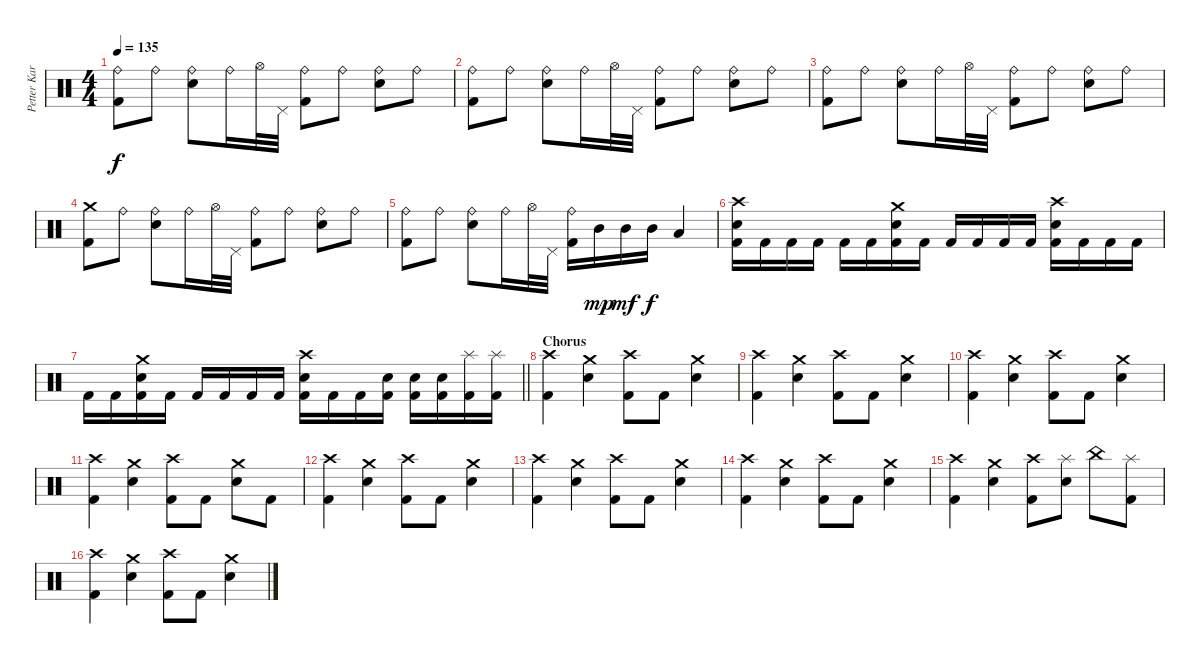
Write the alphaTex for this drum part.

\track ("Petter Karlsson" "Petter Kar") {instrument percussion}
\staff {score}
\articulation defaults
\ts (4 4)
\tempo 135
\clef neutral
\ks c
("Ride (bell)" "Kick (hit) 2").8{dy f} "Ride (bell)".8 ("Ride (bell)" "Electric Snare (hit)").8 "Ride (bell)".16 "Hi-Hat (open)".32 "Pedal Hi-Hat (hit)".32 ("Ride (bell)" "Kick (hit) 2").8 "Ride (bell)".8 ("Ride (bell)" "Electric Snare (hit)").8 "Ride (bell)".8 |
("Ride (bell)" "Kick (hit) 2").8 "Ride (bell)".8 ("Ride (bell)" "Electric Snare (hit)").8 "Ride (bell)".16 "Hi-Hat (open)".32 "Pedal Hi-Hat (hit)".32 ("Ride (bell)" "Kick (hit) 2").8 "Ride (bell)".8 ("Ride (bell)" "Electric Snare (hit)").8 "Ride (bell)".8 |
("Ride (bell)" "Kick (hit) 2").8 "Ride (bell)".8 ("Ride (bell)" "Electric Snare (hit)").8 "Ride (bell)".16 "Hi-Hat (open)".32 "Pedal Hi-Hat (hit)".32 ("Ride (bell)" "Kick (hit) 2").8 "Ride (bell)".8 ("Ride (bell)" "Electric Snare (hit)").8 "Ride (bell)".8 |
("Crash medium (hit)" "Kick (hit) 2").8 "Ride (bell)".8 ("Ride (bell)" "Electric Snare (hit)").8 "Ride (bell)".16 "Hi-Hat (open)".32 "Pedal Hi-Hat (hit)".32 ("Ride (bell)" "Kick (hit) 2").8 "Ride (bell)".8 ("Ride (bell)" "Electric Snare (hit)").8 "Ride (bell)".8 |
("Ride (bell)" "Kick (hit) 2").8 "Ride (bell)".8 ("Ride (bell)" "Electric Snare (hit)").8 "Ride (bell)".16 "Hi-Hat (open)".32 "Pedal Hi-Hat (hit)".32 ("Ride (bell)" "Kick (hit) 2").16 "Mid Tom (hit)".16{dy mp} "Mid Tom (hit)".16{dy mf} "Mid Tom (hit)".16{dy f} "Low Tom (hit)".4 |
("Crash high (hit)" "Electric Snare (hit)" "Kick (hit) 2").16 "Kick (hit) 2".16 "Kick (hit) 2".16 "Kick (hit) 2".16 "Kick (hit) 2".16 "Kick (hit) 2".16 ("Crash medium (hit)" "Electric Snare (hit)" "Kick (hit) 2").16 "Kick (hit) 2".16 "Kick (hit) 2".16 "Kick (hit) 2".16 "Kick (hit) 2".16 "Kick (hit) 2".16 ("Crash high (hit)" "Electric Snare (hit)" "Kick (hit) 2").16 "Kick (hit) 2".16 "Kick (hit) 2".16 "Kick (hit) 2".16 |
\barLineRight lightlight "Kick (hit) 2".16 "Kick (hit) 2".16
("Crash medium (hit)" "Electric Snare (hit)" "Kick (hit) 2").16 "Kick (hit) 2".16 "Kick (hit) 2".16 "Kick (hit) 2".16 "Kick (hit) 2".16 "Kick (hit) 2".16 ("Crash high (hit)" "Electric Snare (hit)" "Kick (hit) 2").16 "Kick (hit) 2".16 "Kick (hit) 2".16 ("Electric Snare (hit)" "Kick (hit) 2").16 ("Electric Snare (hit)" "Kick (hit) 2").16 ("Electric Snare (hit)" "Kick (hit) 2").16 ("Splash (hit)" "Kick (hit) 2").16 ("Splash (hit)" "Kick (hit) 2").16 |
\section ("" "Chorus")
("Crash high (hit)" "Kick (hit) 2").4 ("Crash medium (hit)" "Electric Snare (hit)").4 ("Crash high (hit)" "Kick (hit) 2").8 "Kick (hit) 2".8 ("Crash medium (hit)" "Electric Snare (hit)").4 |
("Crash high (hit)" "Kick (hit) 2").4 ("Crash medium (hit)" "Electric Snare (hit)").4 ("Crash high (hit)" "Kick (hit) 2").8 "Kick (hit) 2".8 ("Crash medium (hit)" "Electric Snare (hit)").4 |
("Crash high (hit)" "Kick (hit) 2").4 ("Crash medium (hit)" "Electric Snare (hit)").4 ("Crash high (hit)" "Kick (hit) 2").8 "Kick (hit) 2".8 ("Crash medium (hit)" "Electric Snare (hit)").4 |
("Crash high (hit)" "Kick (hit) 2").4 ("Crash medium (hit)" "Electric Snare (hit)").4 ("Crash high (hit)" "Kick (hit) 2").8 "Kick (hit) 2".8 ("Crash medium (hit)" "Electric Snare (hit)").8 "Kick (hit) 2".8 |
("Crash high (hit)" "Kick (hit) 2").4 ("Crash medium (hit)" "Electric Snare (hit)").4 ("Crash high (hit)" "Kick (hit) 2").8 "Kick (hit) 2".8 ("Crash medium (hit)" "Electric Snare (hit)").4 |
("Crash high (hit)" "Kick (hit) 2").4 ("Crash medium (hit)" "Electric Snare (hit)").4 ("Crash high (hit)" "Kick (hit) 2").8 "Kick (hit) 2".8 ("Crash medium (hit)" "Electric Snare (hit)").4 |
("Crash high (hit)" "Kick (hit) 2").4 ("Crash medium (hit)" "Electric Snare (hit)").4 ("Crash high (hit)" "Kick (hit) 2").8 "Kick (hit) 2".8 ("Crash medium (hit)" "Electric Snare (hit)").4 |
("Crash high (hit)" "Kick (hit) 2").4 ("Crash medium (hit)" "Electric Snare (hit)").4 ("Crash high (hit)" "Kick (hit) 2").8 ("Splash (hit)" "Electric Snare (hit)").8 "China (hit)".8 ("Splash (hit)" "Kick (hit) 2").8 |
("Crash high (hit)" "Kick (hit) 2").4 ("Crash medium (hit)" "Electric Snare (hit)").4 ("Crash high (hit)" "Kick (hit) 2").8 "Kick (hit) 2".8 ("Crash medium (hit)" "Electric Snare (hit)").4
